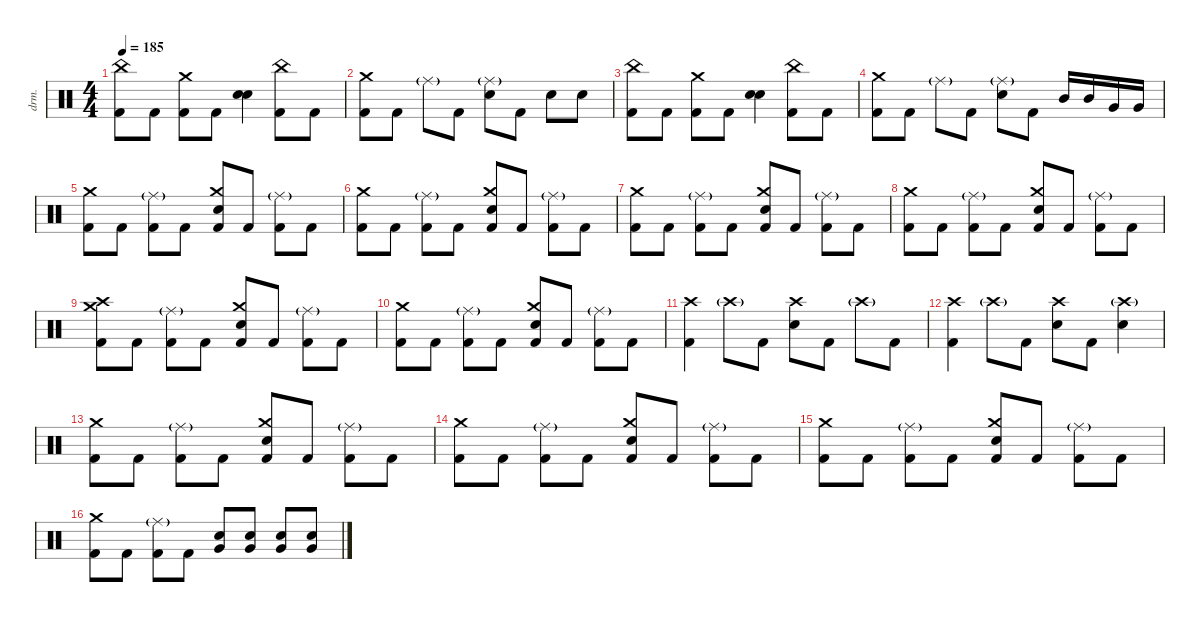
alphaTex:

\defaultSystemsLayout 4
\hideDynamics
\bracketExtendMode nobrackets
\track ("Drums - Šimon" "drm.") {instrument percussion}
\staff {score}
\articulation defaults
\ts (4 4)
\tempo 185
\clef neutral
\ks c
("China (hit)" "Kick (hit) 2").8{dy ff} "Kick (hit) 2".8 ("Kick (hit) 2" "Crash medium (hit)").8 "Kick (hit) 2".8 ("Snare (hit) 2" "Snare (hit) 2").4 ("Kick (hit) 2" "China (hit)").8 "Kick (hit) 2".8 |
("Kick (hit) 2" "Crash medium (hit)").8 "Kick (hit) 2".8 "Ride (middle)"{g}.8 "Kick (hit) 2".8 ("Snare (hit) 2" "Ride (middle)"{g}).8 "Kick (hit) 2".8 "Snare (hit) 2".8 "Snare (hit) 2".8 |
("China (hit)" "Kick (hit) 2").8 "Kick (hit) 2".8 ("Kick (hit) 2" "Crash medium (hit)").8 "Kick (hit) 2".8 ("Snare (hit) 2" "Snare (hit) 2").4 ("Kick (hit) 2" "China (hit)").8 "Kick (hit) 2".8 |
("Kick (hit) 2" "Crash medium (hit)").8 "Kick (hit) 2".8 "Ride (middle)"{g}.8 "Kick (hit) 2".8 ("Snare (hit) 2" "Ride (middle)"{g}).8 "Kick (hit) 2".8 "Mid Tom (hit)".16 "Mid Tom (hit)".16 "Very Low Tom (hit)".16 "Very Low Tom (hit)".16 |
("Kick (hit) 2" "Crash medium (hit)").8 "Kick (hit) 2".8 ("Kick (hit) 2" "Ride (middle)"{g}).8 "Kick (hit) 2".8 ("Snare (hit) 2" "Kick (hit) 2" "Crash medium (hit)").8 "Kick (hit) 2".8 ("Kick (hit) 2" "Ride (middle)"{g}).8 "Kick (hit) 2".8 |
("Kick (hit) 2" "Crash medium (hit)").8 "Kick (hit) 2".8 ("Kick (hit) 2" "Ride (middle)"{g}).8 "Kick (hit) 2".8 ("Snare (hit) 2" "Kick (hit) 2" "Crash medium (hit)").8 "Kick (hit) 2".8 ("Kick (hit) 2" "Ride (middle)"{g}).8 "Kick (hit) 2".8 |
("Kick (hit) 2" "Crash medium (hit)").8 "Kick (hit) 2".8 ("Kick (hit) 2" "Ride (middle)"{g}).8 "Kick (hit) 2".8 ("Snare (hit) 2" "Kick (hit) 2" "Crash medium (hit)").8 "Kick (hit) 2".8 ("Kick (hit) 2" "Ride (middle)"{g}).8 "Kick (hit) 2".8 |
("Kick (hit) 2" "Crash medium (hit)").8 "Kick (hit) 2".8 ("Kick (hit) 2" "Ride (middle)"{g}).8 "Kick (hit) 2".8 ("Snare (hit) 2" "Kick (hit) 2" "Crash medium (hit)").8 "Kick (hit) 2".8 ("Kick (hit) 2" "Ride (middle)"{g}).8 "Kick (hit) 2".8 |
("Kick (hit) 2" "Crash medium (hit)" "Crash high (hit)").8 "Kick (hit) 2".8 ("Kick (hit) 2" "Ride (middle)"{g}).8 "Kick (hit) 2".8 ("Snare (hit) 2" "Kick (hit) 2" "Crash medium (hit)").8 "Kick (hit) 2".8 ("Kick (hit) 2" "Ride (middle)"{g}).8 "Kick (hit) 2".8 |
("Kick (hit) 2" "Crash medium (hit)").8 "Kick (hit) 2".8 ("Kick (hit) 2" "Ride (middle)"{g}).8 "Kick (hit) 2".8 ("Snare (hit) 2" "Kick (hit) 2" "Crash medium (hit)").8 "Kick (hit) 2".8 ("Kick (hit) 2" "Ride (middle)"{g}).8 "Kick (hit) 2".8 |
("Crash high (hit)" "Kick (hit) 2").4 "Crash high (hit)"{g}.8 "Kick (hit) 2".8 ("Snare (hit) 2" "Crash high (hit)").8 "Kick (hit) 2".8 "Crash high (hit)"{g}.8 "Kick (hit) 2".8 |
("Crash high (hit)" "Kick (hit) 2").4 "Crash high (hit)"{g}.8 "Kick (hit) 2".8 ("Snare (hit) 2" "Crash high (hit)").8 "Kick (hit) 2".8 ("Crash high (hit)"{g} "Snare (hit) 2").4 |
("Kick (hit) 2" "Crash medium (hit)").8 "Kick (hit) 2".8 ("Kick (hit) 2" "Ride (middle)"{g}).8 "Kick (hit) 2".8 ("Snare (hit) 2" "Kick (hit) 2" "Crash medium (hit)").8 "Kick (hit) 2".8 ("Kick (hit) 2" "Ride (middle)"{g}).8 "Kick (hit) 2".8 |
("Kick (hit) 2" "Crash medium (hit)").8 "Kick (hit) 2".8 ("Kick (hit) 2" "Ride (middle)"{g}).8 "Kick (hit) 2".8 ("Snare (hit) 2" "Kick (hit) 2" "Crash medium (hit)").8 "Kick (hit) 2".8 ("Kick (hit) 2" "Ride (middle)"{g}).8 "Kick (hit) 2".8 |
("Kick (hit) 2" "Crash medium (hit)").8 "Kick (hit) 2".8 ("Kick (hit) 2" "Ride (middle)"{g}).8 "Kick (hit) 2".8 ("Snare (hit) 2" "Kick (hit) 2" "Crash medium (hit)").8 "Kick (hit) 2".8 ("Kick (hit) 2" "Ride (middle)"{g}).8 "Kick (hit) 2".8 |
("Kick (hit) 2" "Crash medium (hit)").8 "Kick (hit) 2".8 ("Kick (hit) 2" "Ride (middle)"{g}).8 "Kick (hit) 2".8 ("Snare (hit) 2" "Very Low Tom (hit)").8 ("Snare (hit) 2" "Very Low Tom (hit)").8 ("Snare (hit) 2" "Very Low Tom (hit)").8 ("Snare (hit) 2" "Very Low Tom (hit)").8
